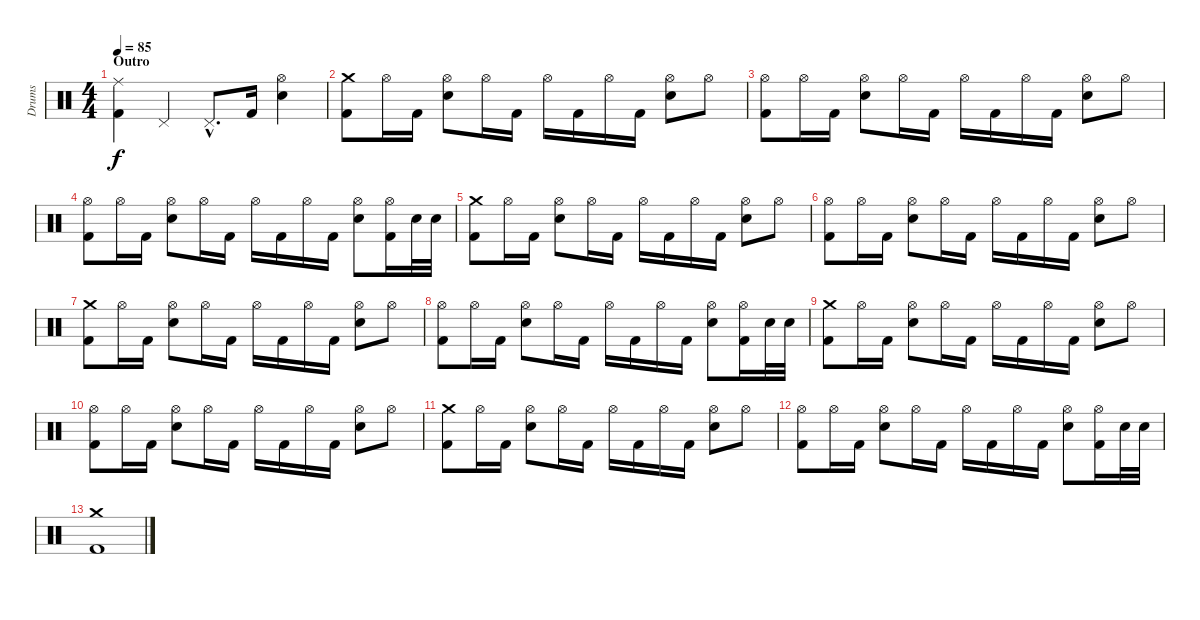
\track ("Drums" "Drums") {instrument percussion}
\staff {score}
\articulation defaults
\ts (4 4)
\section ("" "Outro")
\tempo 85
\clef neutral
\ks c
("Ride (middle)" "Kick (hit) 2").4{dy f} "Pedal Hi-Hat (hit)".4 "Pedal Hi-Hat (hit)"{hac}.8{d} "Kick (hit) 2".16 ("Hi-Hat (open)" "Electric Snare (hit)").4 |
("Crash medium (hit)" "Kick (hit) 2").8 "Hi-Hat (open)".16 "Kick (hit) 2".16 ("Hi-Hat (open)" "Electric Snare (hit)").8 "Hi-Hat (open)".16 "Kick (hit) 2".16 "Hi-Hat (open)".16 "Kick (hit) 2".16 "Hi-Hat (open)".16 "Kick (hit) 2".16 ("Hi-Hat (open)" "Electric Snare (hit)").8 "Hi-Hat (open)".8 |
("Hi-Hat (open)" "Kick (hit) 2").8 "Hi-Hat (open)".16 "Kick (hit) 2".16 ("Hi-Hat (open)" "Electric Snare (hit)").8 "Hi-Hat (open)".16 "Kick (hit) 2".16 "Hi-Hat (open)".16 "Kick (hit) 2".16 "Hi-Hat (open)".16 "Kick (hit) 2".16 ("Hi-Hat (open)" "Electric Snare (hit)").8 "Hi-Hat (open)".8 |
("Hi-Hat (open)" "Kick (hit) 2").8 "Hi-Hat (open)".16 "Kick (hit) 2".16 ("Hi-Hat (open)" "Electric Snare (hit)").8 "Hi-Hat (open)".16 "Kick (hit) 2".16 "Hi-Hat (open)".16 "Kick (hit) 2".16 "Hi-Hat (open)".16 "Kick (hit) 2".16 ("Hi-Hat (open)" "Electric Snare (hit)").8 ("Hi-Hat (open)" "Kick (hit) 2").16 "Electric Snare (hit)".32 "Electric Snare (hit)".32 |
("Crash medium (hit)" "Kick (hit) 2").8 "Hi-Hat (open)".16 "Kick (hit) 2".16 ("Hi-Hat (open)" "Electric Snare (hit)").8 "Hi-Hat (open)".16 "Kick (hit) 2".16 "Hi-Hat (open)".16 "Kick (hit) 2".16 "Hi-Hat (open)".16 "Kick (hit) 2".16 ("Hi-Hat (open)" "Electric Snare (hit)").8 "Hi-Hat (open)".8 |
("Hi-Hat (open)" "Kick (hit) 2").8 "Hi-Hat (open)".16 "Kick (hit) 2".16 ("Hi-Hat (open)" "Electric Snare (hit)").8 "Hi-Hat (open)".16 "Kick (hit) 2".16 "Hi-Hat (open)".16 "Kick (hit) 2".16 "Hi-Hat (open)".16 "Kick (hit) 2".16 ("Hi-Hat (open)" "Electric Snare (hit)").8 "Hi-Hat (open)".8 |
("Crash medium (hit)" "Kick (hit) 2").8 "Hi-Hat (open)".16 "Kick (hit) 2".16 ("Hi-Hat (open)" "Electric Snare (hit)").8 "Hi-Hat (open)".16 "Kick (hit) 2".16 "Hi-Hat (open)".16 "Kick (hit) 2".16 "Hi-Hat (open)".16 "Kick (hit) 2".16 ("Hi-Hat (open)" "Electric Snare (hit)").8 "Hi-Hat (open)".8 |
("Hi-Hat (open)" "Kick (hit) 2").8 "Hi-Hat (open)".16 "Kick (hit) 2".16 ("Hi-Hat (open)" "Electric Snare (hit)").8 "Hi-Hat (open)".16 "Kick (hit) 2".16 "Hi-Hat (open)".16 "Kick (hit) 2".16 "Hi-Hat (open)".16 "Kick (hit) 2".16 ("Hi-Hat (open)" "Electric Snare (hit)").8 ("Hi-Hat (open)" "Kick (hit) 2").16 "Electric Snare (hit)".32 "Electric Snare (hit)".32 |
("Crash medium (hit)" "Kick (hit) 2").8 "Hi-Hat (open)".16 "Kick (hit) 2".16 ("Hi-Hat (open)" "Electric Snare (hit)").8 "Hi-Hat (open)".16 "Kick (hit) 2".16 "Hi-Hat (open)".16 "Kick (hit) 2".16 "Hi-Hat (open)".16 "Kick (hit) 2".16 ("Hi-Hat (open)" "Electric Snare (hit)").8 "Hi-Hat (open)".8 |
("Hi-Hat (open)" "Kick (hit) 2").8 "Hi-Hat (open)".16 "Kick (hit) 2".16 ("Hi-Hat (open)" "Electric Snare (hit)").8 "Hi-Hat (open)".16 "Kick (hit) 2".16 "Hi-Hat (open)".16 "Kick (hit) 2".16 "Hi-Hat (open)".16 "Kick (hit) 2".16 ("Hi-Hat (open)" "Electric Snare (hit)").8 "Hi-Hat (open)".8 |
("Crash medium (hit)" "Kick (hit) 2").8 "Hi-Hat (open)".16 "Kick (hit) 2".16 ("Hi-Hat (open)" "Electric Snare (hit)").8 "Hi-Hat (open)".16 "Kick (hit) 2".16 "Hi-Hat (open)".16 "Kick (hit) 2".16 "Hi-Hat (open)".16 "Kick (hit) 2".16 ("Hi-Hat (open)" "Electric Snare (hit)").8 "Hi-Hat (open)".8 |
("Hi-Hat (open)" "Kick (hit) 2").8 "Hi-Hat (open)".16 "Kick (hit) 2".16 ("Hi-Hat (open)" "Electric Snare (hit)").8 "Hi-Hat (open)".16 "Kick (hit) 2".16 "Hi-Hat (open)".16 "Kick (hit) 2".16 "Hi-Hat (open)".16 "Kick (hit) 2".16 ("Hi-Hat (open)" "Electric Snare (hit)").8 ("Hi-Hat (open)" "Kick (hit) 2").16 "Electric Snare (hit)".32 "Electric Snare (hit)".32 |
("Crash medium (hit)" "Kick (hit) 2").1
